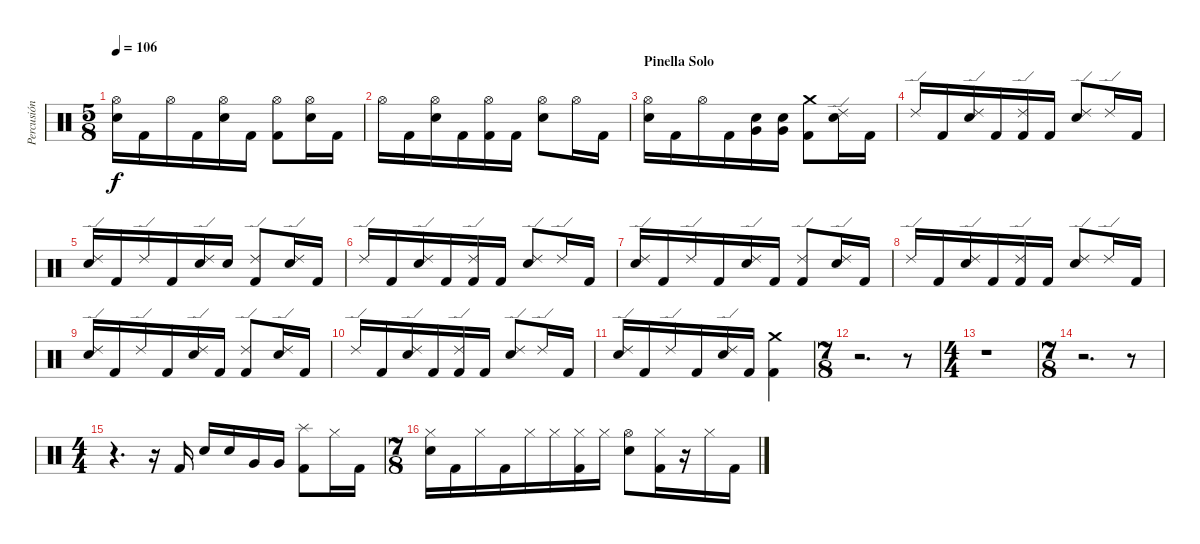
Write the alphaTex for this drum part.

\track ("Percusión" "Percusión") {instrument percussion}
\staff {score}
\articulation defaults
\ts (5 8)
\tempo 106
\clef neutral
\ks c
("Electric Snare (hit)" "Hi-Hat (open)").16{dy f} "Kick (hit) 2".16 "Hi-Hat (open)".16 "Kick (hit) 2".16 ("Electric Snare (hit)" "Hi-Hat (open)").16 "Kick (hit) 2".16 ("Kick (hit) 2" "Hi-Hat (open)").8 ("Electric Snare (hit)" "Hi-Hat (open)").16 "Kick (hit) 2".16 |
"Hi-Hat (open)".16 "Kick (hit) 2".16 ("Electric Snare (hit)" "Hi-Hat (open)").16 "Kick (hit) 2".16 ("Kick (hit) 2" "Hi-Hat (open)").16 "Kick (hit) 2".16 ("Electric Snare (hit)" "Hi-Hat (open)").8 "Hi-Hat (open)".16 "Kick (hit) 2".16 |
\section ("" "Pinella Solo")
("Electric Snare (hit)" "Hi-Hat (open)").16 "Kick (hit) 2".16 "Hi-Hat (open)".16 "Kick (hit) 2".16 ("Very Low Tom (hit)" "Electric Snare (hit)").16 ("Very Low Tom (hit)" "Electric Snare (hit)").16 ("Kick (hit) 2" "Crash medium (hit)").8 ("Ride (edge) 2" "Electric Snare (hit)").16 "Kick (hit) 2".16 |
"Ride (edge) 2".16 "Kick (hit) 2".16 ("Ride (edge) 2" "Electric Snare (hit)").16 "Kick (hit) 2".16 ("Ride (edge) 2" "Kick (hit) 2").16 "Kick (hit) 2".16 ("Ride (edge) 2" "Electric Snare (hit)").8 "Ride (edge) 2".16 "Kick (hit) 2".16 |
("Ride (edge) 2" "Electric Snare (hit)").16 "Kick (hit) 2".16 "Ride (edge) 2".16 "Kick (hit) 2".16 ("Ride (edge) 2" "Electric Snare (hit)").16 "Electric Snare (hit)".16 ("Ride (edge) 2" "Kick (hit) 2").8 ("Ride (edge) 2" "Electric Snare (hit)").16 "Kick (hit) 2".16 |
"Ride (edge) 2".16 "Kick (hit) 2".16 ("Ride (edge) 2" "Electric Snare (hit)").16 "Kick (hit) 2".16 ("Ride (edge) 2" "Kick (hit) 2").16 "Kick (hit) 2".16 ("Ride (edge) 2" "Electric Snare (hit)").8 "Ride (edge) 2".16 "Kick (hit) 2".16 |
("Ride (edge) 2" "Electric Snare (hit)").16 "Kick (hit) 2".16 "Ride (edge) 2".16 "Kick (hit) 2".16 ("Ride (edge) 2" "Electric Snare (hit)").16 "Kick (hit) 2".16 ("Ride (edge) 2" "Kick (hit) 2").8 ("Ride (edge) 2" "Electric Snare (hit)").16 "Kick (hit) 2".16 |
"Ride (edge) 2".16 "Kick (hit) 2".16 ("Ride (edge) 2" "Electric Snare (hit)").16 "Kick (hit) 2".16 ("Ride (edge) 2" "Kick (hit) 2").16 "Kick (hit) 2".16 ("Ride (edge) 2" "Electric Snare (hit)").8 "Ride (edge) 2".16 "Kick (hit) 2".16 |
("Ride (edge) 2" "Electric Snare (hit)").16 "Kick (hit) 2".16 "Ride (edge) 2".16 "Kick (hit) 2".16 ("Ride (edge) 2" "Electric Snare (hit)").16 "Kick (hit) 2".16 ("Ride (edge) 2" "Kick (hit) 2").8 ("Ride (edge) 2" "Electric Snare (hit)").16 "Kick (hit) 2".16 |
"Ride (edge) 2".16 "Kick (hit) 2".16 ("Ride (edge) 2" "Electric Snare (hit)").16 "Kick (hit) 2".16 ("Ride (edge) 2" "Kick (hit) 2").16 "Kick (hit) 2".16 ("Ride (edge) 2" "Electric Snare (hit)").8 "Ride (edge) 2".16 "Kick (hit) 2".16 |
("Ride (edge) 2" "Electric Snare (hit)").16 "Kick (hit) 2".16 "Ride (edge) 2".16 "Kick (hit) 2".16 ("Ride (edge) 2" "Electric Snare (hit)").16 "Kick (hit) 2".16 ("Crash medium (hit)" "Kick (hit) 2").4 |
\ts (7 8)
r.2{d} r.8 |
\ts (4 4)
r.1 |
\ts (7 8)
r.2{d} r.8 |
\ts (4 4)
r.4{d} r.16 "Kick (hit) 2".16 "Electric Snare (hit)".16 "Electric Snare (hit)".16 "Very Low Tom (hit)".16 "Very Low Tom (hit)".16 ("Splash (hit)" "Kick (hit) 2").8 "Hi-Hat (closed)".16 "Kick (hit) 2".16 |
\ts (7 8)
("Hi-Hat (closed)" "Electric Snare (hit)").16 "Kick (hit) 2".16 "Hi-Hat (closed)".16 "Kick (hit) 2".16 "Hi-Hat (closed)".16 "Hi-Hat (closed)".16 ("Hi-Hat (closed)" "Kick (hit) 2").16 "Hi-Hat (closed)".16 ("Hi-Hat (open)" "Electric Snare (hit)").8 ("Hi-Hat (closed)" "Kick (hit) 2").16 r.16 "Hi-Hat (closed)".16 "Kick (hit) 2".16
